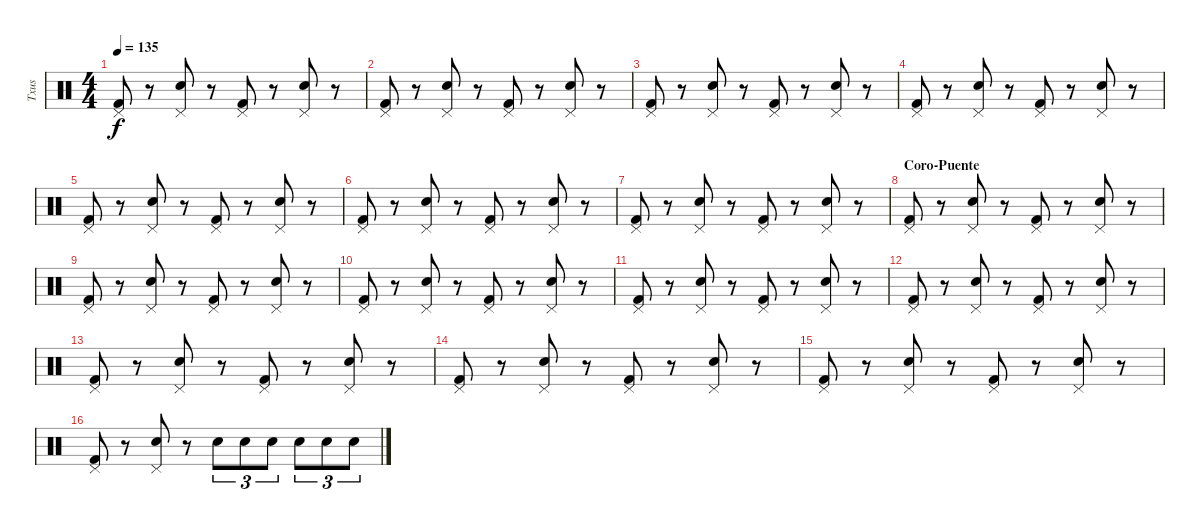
\track ("Txus" "Txus") {instrument percussion}
\staff {score}
\articulation defaults
\ts (4 4)
\tempo 135
\clef neutral
\ks c
("Pedal Hi-Hat (hit)" "Kick (hit) 2").8{dy f volume 13 balance 8} r.8 ("Pedal Hi-Hat (hit)" "Snare (hit) 2").8 r.8 ("Pedal Hi-Hat (hit)" "Kick (hit) 2").8 r.8 ("Pedal Hi-Hat (hit)" "Snare (hit) 2").8 r.8 |
("Pedal Hi-Hat (hit)" "Kick (hit) 2").8 r.8 ("Pedal Hi-Hat (hit)" "Snare (hit) 2").8 r.8 ("Pedal Hi-Hat (hit)" "Kick (hit) 2").8 r.8 ("Pedal Hi-Hat (hit)" "Snare (hit) 2").8 r.8 |
("Pedal Hi-Hat (hit)" "Kick (hit) 2").8 r.8 ("Pedal Hi-Hat (hit)" "Snare (hit) 2").8 r.8 ("Pedal Hi-Hat (hit)" "Kick (hit) 2").8 r.8 ("Pedal Hi-Hat (hit)" "Snare (hit) 2").8 r.8 |
("Pedal Hi-Hat (hit)" "Kick (hit) 2").8 r.8 ("Pedal Hi-Hat (hit)" "Snare (hit) 2").8 r.8 ("Pedal Hi-Hat (hit)" "Kick (hit) 2").8 r.8 ("Pedal Hi-Hat (hit)" "Snare (hit) 2").8 r.8 |
("Pedal Hi-Hat (hit)" "Kick (hit) 2").8 r.8 ("Pedal Hi-Hat (hit)" "Snare (hit) 2").8 r.8 ("Pedal Hi-Hat (hit)" "Kick (hit) 2").8 r.8 ("Pedal Hi-Hat (hit)" "Snare (hit) 2").8 r.8 |
("Pedal Hi-Hat (hit)" "Kick (hit) 2").8 r.8 ("Pedal Hi-Hat (hit)" "Snare (hit) 2").8 r.8 ("Pedal Hi-Hat (hit)" "Kick (hit) 2").8 r.8 ("Pedal Hi-Hat (hit)" "Snare (hit) 2").8 r.8 |
("Pedal Hi-Hat (hit)" "Kick (hit) 2").8 r.8 ("Pedal Hi-Hat (hit)" "Snare (hit) 2").8 r.8 ("Pedal Hi-Hat (hit)" "Kick (hit) 2").8 r.8 ("Pedal Hi-Hat (hit)" "Snare (hit) 2").8 r.8 |
\section ("" "Coro-Puente")
("Pedal Hi-Hat (hit)" "Kick (hit) 2").8 r.8 ("Pedal Hi-Hat (hit)" "Snare (hit) 2").8 r.8 ("Pedal Hi-Hat (hit)" "Kick (hit) 2").8 r.8 ("Pedal Hi-Hat (hit)" "Snare (hit) 2").8 r.8 |
("Pedal Hi-Hat (hit)" "Kick (hit) 2").8 r.8 ("Pedal Hi-Hat (hit)" "Snare (hit) 2").8 r.8 ("Pedal Hi-Hat (hit)" "Kick (hit) 2").8 r.8 ("Pedal Hi-Hat (hit)" "Snare (hit) 2").8 r.8 |
("Pedal Hi-Hat (hit)" "Kick (hit) 2").8 r.8 ("Pedal Hi-Hat (hit)" "Snare (hit) 2").8 r.8 ("Pedal Hi-Hat (hit)" "Kick (hit) 2").8 r.8 ("Pedal Hi-Hat (hit)" "Snare (hit) 2").8 r.8 |
("Pedal Hi-Hat (hit)" "Kick (hit) 2").8 r.8 ("Pedal Hi-Hat (hit)" "Snare (hit) 2").8 r.8 ("Pedal Hi-Hat (hit)" "Kick (hit) 2").8 r.8 ("Pedal Hi-Hat (hit)" "Snare (hit) 2").8 r.8 |
("Pedal Hi-Hat (hit)" "Kick (hit) 2").8 r.8 ("Pedal Hi-Hat (hit)" "Snare (hit) 2").8 r.8 ("Pedal Hi-Hat (hit)" "Kick (hit) 2").8 r.8 ("Pedal Hi-Hat (hit)" "Snare (hit) 2").8 r.8 |
("Pedal Hi-Hat (hit)" "Kick (hit) 2").8 r.8 ("Pedal Hi-Hat (hit)" "Snare (hit) 2").8 r.8 ("Pedal Hi-Hat (hit)" "Kick (hit) 2").8 r.8 ("Pedal Hi-Hat (hit)" "Snare (hit) 2").8 r.8 |
("Pedal Hi-Hat (hit)" "Kick (hit) 2").8 r.8 ("Pedal Hi-Hat (hit)" "Snare (hit) 2").8 r.8 ("Pedal Hi-Hat (hit)" "Kick (hit) 2").8 r.8 ("Pedal Hi-Hat (hit)" "Snare (hit) 2").8 r.8 |
("Pedal Hi-Hat (hit)" "Kick (hit) 2").8 r.8 ("Pedal Hi-Hat (hit)" "Snare (hit) 2").8 r.8 ("Pedal Hi-Hat (hit)" "Kick (hit) 2").8 r.8 ("Pedal Hi-Hat (hit)" "Snare (hit) 2").8 r.8 |
("Pedal Hi-Hat (hit)" "Kick (hit) 2").8 r.8 ("Pedal Hi-Hat (hit)" "Snare (hit) 2").8 r.8 "Snare (hit) 2".8{tu (3 2)} "Snare (hit) 2".8{tu (3 2)} "Snare (hit) 2".8{tu (3 2)} "Snare (hit) 2".8{tu (3 2)} "Snare (hit) 2".8{tu (3 2)} "Snare (hit) 2".8{tu (3 2)}
